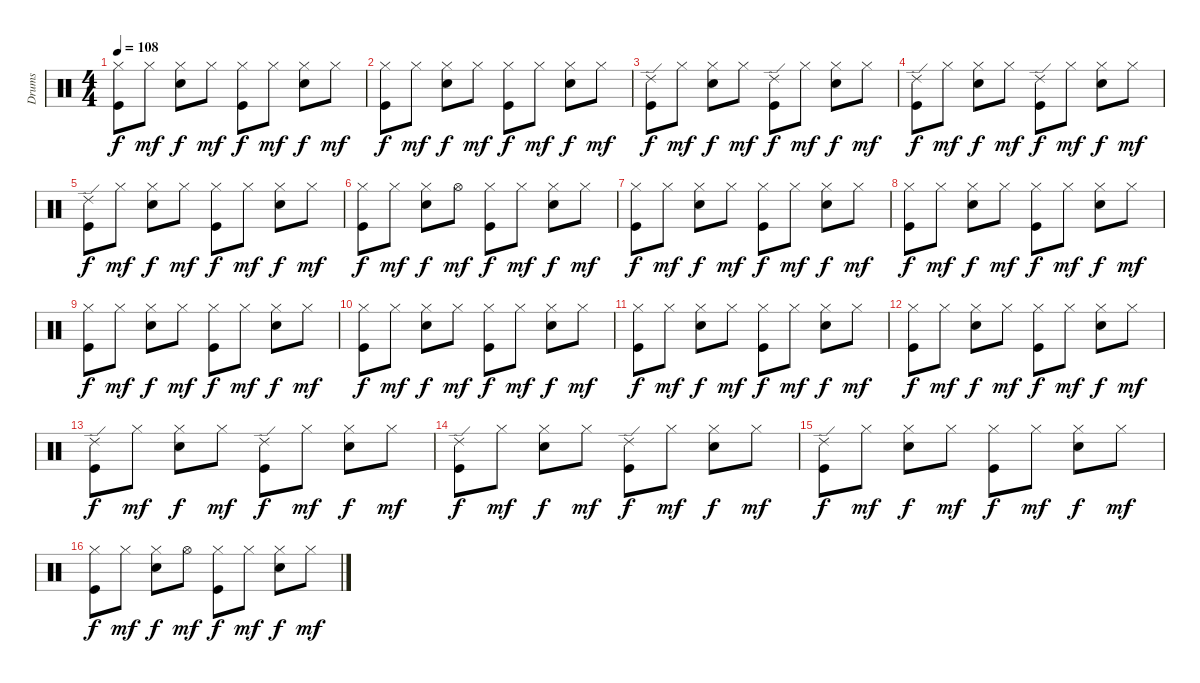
\track ("Drums" "Drums") {instrument percussion}
\staff {score}
\articulation defaults
\ts (4 4)
\tempo 108
\clef neutral
\ks c
("Hi-Hat (closed)" "Kick (hit)").8{dy f} "Hi-Hat (closed)".8{dy mf} ("Hi-Hat (closed)" "Electric Snare (hit)").8{dy f} "Hi-Hat (closed)".8{dy mf} ("Hi-Hat (closed)" "Kick (hit)").8{dy f} "Hi-Hat (closed)".8{dy mf} ("Hi-Hat (closed)" "Electric Snare (hit)").8{dy f} "Hi-Hat (closed)".8{dy mf} |
("Hi-Hat (closed)" "Kick (hit)").8{dy f} "Hi-Hat (closed)".8{dy mf} ("Hi-Hat (closed)" "Electric Snare (hit)").8{dy f} "Hi-Hat (closed)".8{dy mf} ("Hi-Hat (closed)" "Kick (hit)").8{dy f} "Hi-Hat (closed)".8{dy mf} ("Hi-Hat (closed)" "Electric Snare (hit)").8{dy f} "Hi-Hat (closed)".8{dy mf} |
("Ride (edge) 2" "Kick (hit)").8{dy f} "Hi-Hat (closed)".8{dy mf} ("Hi-Hat (closed)" "Electric Snare (hit)").8{dy f} "Hi-Hat (closed)".8{dy mf} ("Ride (edge) 2" "Kick (hit)").8{dy f} "Hi-Hat (closed)".8{dy mf} ("Hi-Hat (closed)" "Electric Snare (hit)").8{dy f} "Hi-Hat (closed)".8{dy mf} |
("Ride (edge) 2" "Kick (hit)").8{dy f} "Hi-Hat (closed)".8{dy mf} ("Hi-Hat (closed)" "Electric Snare (hit)").8{dy f} "Hi-Hat (closed)".8{dy mf} ("Ride (edge) 2" "Kick (hit)").8{dy f} "Hi-Hat (closed)".8{dy mf} ("Hi-Hat (closed)" "Electric Snare (hit)").8{dy f} "Hi-Hat (closed)".8{dy mf} |
("Ride (edge) 2" "Kick (hit)").8{dy f} "Hi-Hat (closed)".8{dy mf} ("Hi-Hat (closed)" "Electric Snare (hit)").8{dy f} "Hi-Hat (closed)".8{dy mf} ("Hi-Hat (closed)" "Kick (hit)").8{dy f} "Hi-Hat (closed)".8{dy mf} ("Hi-Hat (closed)" "Electric Snare (hit)").8{dy f} "Hi-Hat (closed)".8{dy mf} |
("Hi-Hat (closed)" "Kick (hit)").8{dy f} "Hi-Hat (closed)".8{dy mf} ("Hi-Hat (closed)" "Electric Snare (hit)").8{dy f} "Hi-Hat (open)".8{dy mf} ("Hi-Hat (closed)" "Kick (hit)").8{dy f} "Hi-Hat (closed)".8{dy mf} ("Hi-Hat (closed)" "Electric Snare (hit)").8{dy f} "Hi-Hat (closed)".8{dy mf} |
("Hi-Hat (closed)" "Kick (hit)").8{dy f} "Hi-Hat (closed)".8{dy mf} ("Hi-Hat (closed)" "Electric Snare (hit)").8{dy f} "Hi-Hat (closed)".8{dy mf} ("Hi-Hat (closed)" "Kick (hit)").8{dy f} "Hi-Hat (closed)".8{dy mf} ("Hi-Hat (closed)" "Electric Snare (hit)").8{dy f} "Hi-Hat (closed)".8{dy mf} |
("Hi-Hat (closed)" "Kick (hit)").8{dy f} "Hi-Hat (closed)".8{dy mf} ("Hi-Hat (closed)" "Electric Snare (hit)").8{dy f} "Hi-Hat (closed)".8{dy mf} ("Hi-Hat (closed)" "Kick (hit)").8{dy f} "Hi-Hat (closed)".8{dy mf} ("Hi-Hat (closed)" "Electric Snare (hit)").8{dy f} "Hi-Hat (closed)".8{dy mf} |
("Hi-Hat (closed)" "Kick (hit)").8{dy f} "Hi-Hat (closed)".8{dy mf} ("Hi-Hat (closed)" "Electric Snare (hit)").8{dy f} "Hi-Hat (closed)".8{dy mf} ("Hi-Hat (closed)" "Kick (hit)").8{dy f} "Hi-Hat (closed)".8{dy mf} ("Hi-Hat (closed)" "Electric Snare (hit)").8{dy f} "Hi-Hat (closed)".8{dy mf} |
("Hi-Hat (closed)" "Kick (hit)").8{dy f} "Hi-Hat (closed)".8{dy mf} ("Hi-Hat (closed)" "Electric Snare (hit)").8{dy f} "Hi-Hat (closed)".8{dy mf} ("Hi-Hat (closed)" "Kick (hit)").8{dy f} "Hi-Hat (closed)".8{dy mf} ("Hi-Hat (closed)" "Electric Snare (hit)").8{dy f} "Hi-Hat (closed)".8{dy mf} |
("Hi-Hat (closed)" "Kick (hit)").8{dy f} "Hi-Hat (closed)".8{dy mf} ("Hi-Hat (closed)" "Electric Snare (hit)").8{dy f} "Hi-Hat (closed)".8{dy mf} ("Hi-Hat (closed)" "Kick (hit)").8{dy f} "Hi-Hat (closed)".8{dy mf} ("Hi-Hat (closed)" "Electric Snare (hit)").8{dy f} "Hi-Hat (closed)".8{dy mf} |
("Hi-Hat (closed)" "Kick (hit)").8{dy f} "Hi-Hat (closed)".8{dy mf} ("Hi-Hat (closed)" "Electric Snare (hit)").8{dy f} "Hi-Hat (closed)".8{dy mf} ("Hi-Hat (closed)" "Kick (hit)").8{dy f} "Hi-Hat (closed)".8{dy mf} ("Hi-Hat (closed)" "Electric Snare (hit)").8{dy f} "Hi-Hat (closed)".8{dy mf} |
("Ride (edge) 2" "Kick (hit)").8{dy f} "Hi-Hat (closed)".8{dy mf} ("Hi-Hat (closed)" "Electric Snare (hit)").8{dy f} "Hi-Hat (closed)".8{dy mf} ("Ride (edge) 2" "Kick (hit)").8{dy f} "Hi-Hat (closed)".8{dy mf} ("Hi-Hat (closed)" "Electric Snare (hit)").8{dy f} "Hi-Hat (closed)".8{dy mf} |
("Ride (edge) 2" "Kick (hit)").8{dy f} "Hi-Hat (closed)".8{dy mf} ("Hi-Hat (closed)" "Electric Snare (hit)").8{dy f} "Hi-Hat (closed)".8{dy mf} ("Ride (edge) 2" "Kick (hit)").8{dy f} "Hi-Hat (closed)".8{dy mf} ("Hi-Hat (closed)" "Electric Snare (hit)").8{dy f} "Hi-Hat (closed)".8{dy mf} |
("Ride (edge) 2" "Kick (hit)").8{dy f} "Hi-Hat (closed)".8{dy mf} ("Hi-Hat (closed)" "Electric Snare (hit)").8{dy f} "Hi-Hat (closed)".8{dy mf} ("Hi-Hat (closed)" "Kick (hit)").8{dy f} "Hi-Hat (closed)".8{dy mf} ("Hi-Hat (closed)" "Electric Snare (hit)").8{dy f} "Hi-Hat (closed)".8{dy mf} |
("Hi-Hat (closed)" "Kick (hit)").8{dy f} "Hi-Hat (closed)".8{dy mf} ("Hi-Hat (closed)" "Electric Snare (hit)").8{dy f} "Hi-Hat (open)".8{dy mf} ("Hi-Hat (closed)" "Kick (hit)").8{dy f} "Hi-Hat (closed)".8{dy mf} ("Hi-Hat (closed)" "Electric Snare (hit)").8{dy f} "Hi-Hat (closed)".8{dy mf}
